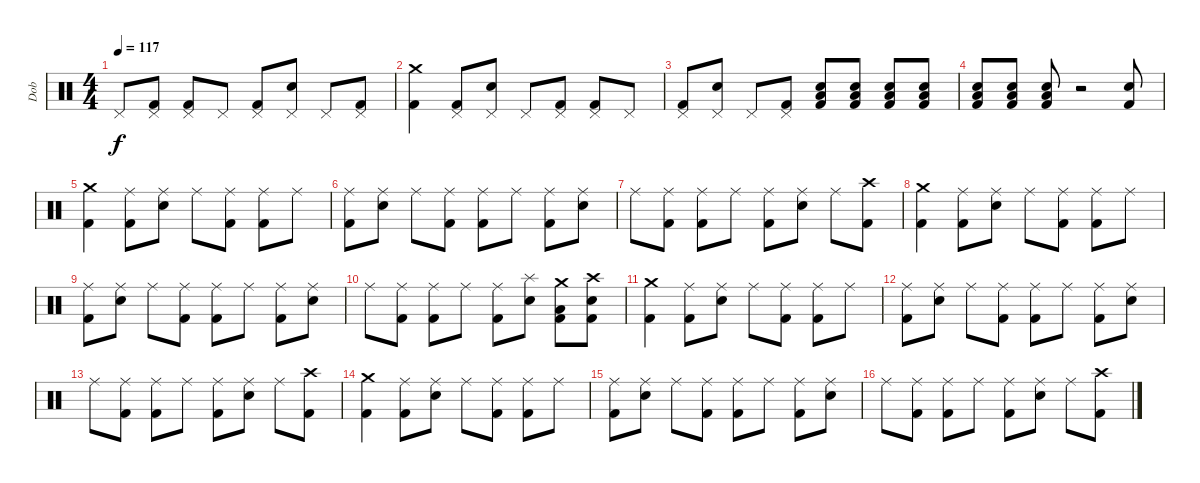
\track ("Dob" "Dob") {instrument percussion}
\staff
\articulation defaults
\ts (4 4)
\tempo 117
\clef neutral
\ks c "Pedal Hi-Hat (hit)".8{dy f}
("Pedal Hi-Hat (hit)" "Kick (hit) 2").8 ("Pedal Hi-Hat (hit)" "Kick (hit) 2").8 "Pedal Hi-Hat (hit)".8 ("Pedal Hi-Hat (hit)" "Kick (hit) 2").8 ("Pedal Hi-Hat (hit)" "Snare (hit) 2").8 "Pedal Hi-Hat (hit)".8 ("Pedal Hi-Hat (hit)" "Kick (hit) 2").8 |
("Crash medium (hit)" "Kick (hit) 2").4 ("Pedal Hi-Hat (hit)" "Kick (hit) 2").8 ("Pedal Hi-Hat (hit)" "Snare (hit) 2").8 "Pedal Hi-Hat (hit)".8 ("Pedal Hi-Hat (hit)" "Kick (hit) 2").8 ("Pedal Hi-Hat (hit)" "Kick (hit) 2").8 "Pedal Hi-Hat (hit)".8 |
("Pedal Hi-Hat (hit)" "Kick (hit) 2").8 ("Pedal Hi-Hat (hit)" "Snare (hit) 2").8 "Pedal Hi-Hat (hit)".8 ("Pedal Hi-Hat (hit)" "Kick (hit) 2").8 ("Snare (hit) 2" "Low Tom (hit)" "Kick (hit) 2").8 ("Snare (hit) 2" "Low Tom (hit)" "Kick (hit) 2").8 ("Snare (hit) 2" "Low Tom (hit)" "Kick (hit) 2").8 ("Snare (hit) 2" "Low Tom (hit)" "Kick (hit) 2").8 |
("Snare (hit) 2" "Low Tom (hit)" "Kick (hit) 2").8 ("Snare (hit) 2" "Low Tom (hit)" "Kick (hit) 2").8 ("Snare (hit) 2" "Low Tom (hit)" "Kick (hit) 2").8 r.2 ("Snare (hit) 2" "Kick (hit) 2").8 |
("Crash medium (hit)" "Kick (hit) 2").4 ("Ride (middle)" "Kick (hit) 2").8 ("Ride (middle)" "Snare (hit) 2").8 "Ride (middle)".8 ("Ride (middle)" "Kick (hit) 2").8 ("Ride (middle)" "Kick (hit) 2").8 "Ride (middle)".8 |
("Ride (middle)" "Kick (hit) 2").8 ("Ride (middle)" "Snare (hit) 2").8 "Ride (middle)".8 ("Ride (middle)" "Kick (hit) 2").8 ("Ride (middle)" "Kick (hit) 2").8 "Ride (middle)".8 ("Ride (middle)" "Kick (hit) 2").8 ("Ride (middle)" "Snare (hit) 2").8 |
"Ride (middle)".8 ("Ride (middle)" "Kick (hit) 2").8 ("Ride (middle)" "Kick (hit) 2").8 "Ride (middle)".8 ("Ride (middle)" "Kick (hit) 2").8 ("Ride (middle)" "Snare (hit) 2").8 "Ride (middle)".8 ("Crash high (hit)" "Kick (hit) 2").8 |
("Crash medium (hit)" "Kick (hit) 2").4 ("Ride (middle)" "Kick (hit) 2").8 ("Ride (middle)" "Snare (hit) 2").8 "Ride (middle)".8 ("Ride (middle)" "Kick (hit) 2").8 ("Ride (middle)" "Kick (hit) 2").8 "Ride (middle)".8 |
("Ride (middle)" "Kick (hit) 2").8 ("Ride (middle)" "Snare (hit) 2").8 "Ride (middle)".8 ("Ride (middle)" "Kick (hit) 2").8 ("Ride (middle)" "Kick (hit) 2").8 "Ride (middle)".8 ("Ride (middle)" "Kick (hit) 2").8 ("Ride (middle)" "Snare (hit) 2").8 |
"Ride (middle)".8 ("Ride (middle)" "Kick (hit) 2").8 ("Ride (middle)" "Kick (hit) 2").8 "Ride (middle)".8 ("Ride (middle)" "Kick (hit) 2").8 ("Splash (hit)" "Snare (hit) 2").8 ("Crash medium (hit)" "Low Tom (hit)" "Kick (hit) 2").8 ("Crash high (hit)" "Snare (hit) 2" "Kick (hit) 2").8 |
("Crash medium (hit)" "Kick (hit) 2").4 ("Ride (middle)" "Kick (hit) 2").8 ("Ride (middle)" "Snare (hit) 2").8 "Ride (middle)".8 ("Ride (middle)" "Kick (hit) 2").8 ("Ride (middle)" "Kick (hit) 2").8 "Ride (middle)".8 |
("Ride (middle)" "Kick (hit) 2").8 ("Ride (middle)" "Snare (hit) 2").8 "Ride (middle)".8 ("Ride (middle)" "Kick (hit) 2").8 ("Ride (middle)" "Kick (hit) 2").8 "Ride (middle)".8 ("Ride (middle)" "Kick (hit) 2").8 ("Ride (middle)" "Snare (hit) 2").8 |
"Ride (middle)".8 ("Ride (middle)" "Kick (hit) 2").8 ("Ride (middle)" "Kick (hit) 2").8 "Ride (middle)".8 ("Ride (middle)" "Kick (hit) 2").8 ("Ride (middle)" "Snare (hit) 2").8 "Ride (middle)".8 ("Crash high (hit)" "Kick (hit) 2").8 |
("Crash medium (hit)" "Kick (hit) 2").4 ("Ride (middle)" "Kick (hit) 2").8 ("Ride (middle)" "Snare (hit) 2").8 "Ride (middle)".8 ("Ride (middle)" "Kick (hit) 2").8 ("Ride (middle)" "Kick (hit) 2").8 "Ride (middle)".8 |
("Ride (middle)" "Kick (hit) 2").8 ("Ride (middle)" "Snare (hit) 2").8 "Ride (middle)".8 ("Ride (middle)" "Kick (hit) 2").8 ("Ride (middle)" "Kick (hit) 2").8 "Ride (middle)".8 ("Ride (middle)" "Kick (hit) 2").8 ("Ride (middle)" "Snare (hit) 2").8 |
"Ride (middle)".8 ("Ride (middle)" "Kick (hit) 2").8 ("Ride (middle)" "Kick (hit) 2").8 "Ride (middle)".8 ("Ride (middle)" "Kick (hit) 2").8 ("Ride (middle)" "Snare (hit) 2").8 "Ride (middle)".8 ("Crash high (hit)" "Kick (hit) 2").8
